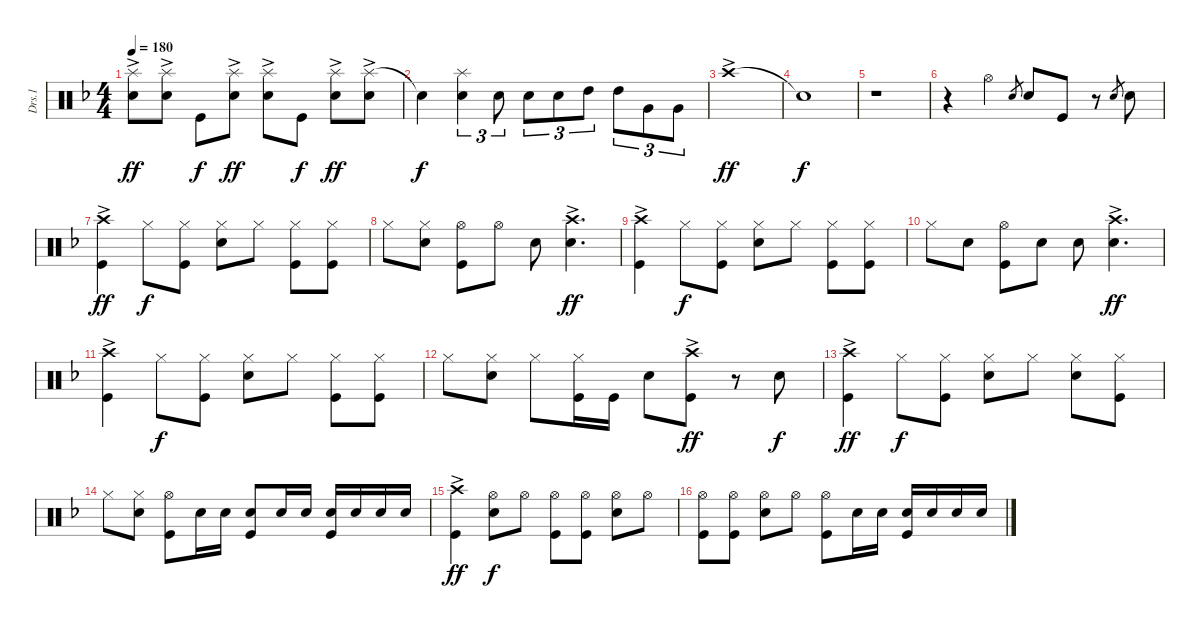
\track ("Drs.1" "Drs.1") {instrument percussion}
\staff {score}
\articulation defaults
\ts (4 4)
\tempo 180
\clef neutral
\ks f
("Splash (hit)"{ac} "Snare (hit) 2").8{dy ff} ("Splash (hit)"{ac} "Snare (hit) 2").8 "Kick (hit)".8{dy f} ("Splash (hit)"{ac} "Snare (hit) 2").8{dy ff} ("Splash (hit)"{ac} "Snare (hit) 2").8 "Kick (hit)".8{dy f} ("Splash (hit)"{ac} "Snare (hit) 2").8{dy ff} ("Splash (hit)"{ac} "Snare (hit) 2").8 |
"Snare (hit)"{t}.4{dy f} ("Splash (hit)" "Snare (hit) 2").4{tu (3 2)} "Snare (hit) 2".8{tu (3 2)} "Snare (hit) 2".8{tu (3 2)} "Snare (hit) 2".8{tu (3 2)} "High Tom (hit)".8{tu (3 2)} "High Tom (hit)".8{tu (3 2)} "Very Low Tom (hit)".8{tu (3 2)} "Very Low Tom (hit)".8{tu (3 2)} |
"Crash high (hit)"{ac}.1{dy ff} |
"Snare (hit)"{t}.1{dy f} |
r.1 |
r.4 "Hi-Hat (open)".4 "Snare (hit) 2".8{gr} "Snare (hit) 2".8 "Kick (hit)".8 r.8 "Snare (hit) 2".8{gr} "Snare (hit) 2".8 |
("Crash high (hit)"{ac} "Kick (hit)").4{dy ff} "Hi-Hat (closed)".8{dy f} ("Hi-Hat (closed)" "Kick (hit)").8 ("Hi-Hat (closed)" "Snare (hit) 2").8 "Hi-Hat (closed)".8 ("Hi-Hat (closed)" "Kick (hit)").8 ("Hi-Hat (closed)" "Kick (hit)").8 |
"Hi-Hat (closed)".8 ("Hi-Hat (closed)" "Snare (hit) 2").8 ("Hi-Hat (open)" "Kick (hit)").8 "Hi-Hat (open)".8 "Snare (hit) 2".8 ("Crash high (hit)"{ac} "Snare (hit) 2").4{d dy ff} |
("Crash high (hit)"{ac} "Kick (hit)").4 "Hi-Hat (closed)".8{dy f} ("Hi-Hat (closed)" "Kick (hit)").8 ("Hi-Hat (closed)" "Snare (hit) 2").8 "Hi-Hat (closed)".8 ("Hi-Hat (closed)" "Kick (hit)").8 ("Hi-Hat (closed)" "Kick (hit)").8 |
"Hi-Hat (closed)".8 "Snare (hit) 2".8 ("Hi-Hat (open)" "Kick (hit)").8 "Snare (hit) 2".8 "Snare (hit) 2".8 ("Crash high (hit)"{ac} "Snare (hit) 2").4{d dy ff} |
("Crash high (hit)"{ac} "Kick (hit)").4 "Hi-Hat (closed)".8{dy f} ("Hi-Hat (closed)" "Kick (hit)").8 ("Hi-Hat (closed)" "Snare (hit) 2").8 "Hi-Hat (closed)".8 ("Hi-Hat (closed)" "Kick (hit)").8 ("Hi-Hat (closed)" "Kick (hit)").8 |
"Hi-Hat (closed)".8 ("Hi-Hat (closed)" "Snare (hit) 2").8 "Hi-Hat (closed)".8 ("Hi-Hat (closed)" "Kick (hit)").16 "Kick (hit)".16 "Snare (hit) 2".8 ("Crash high (hit)"{ac} "Kick (hit)").8{dy ff} r.8 "Snare (hit) 2".8{dy f} |
("Crash high (hit)"{ac} "Kick (hit)").4{dy ff} "Hi-Hat (closed)".8{dy f} ("Hi-Hat (closed)" "Kick (hit)").8 ("Hi-Hat (closed)" "Snare (hit) 2").8 "Hi-Hat (closed)".8 ("Hi-Hat (closed)" "Snare (hit) 2").8 ("Hi-Hat (closed)" "Kick (hit)").8 |
"Hi-Hat (closed)".8 ("Hi-Hat (closed)" "Snare (hit) 2").8 ("Hi-Hat (open)" "Kick (hit)").8 "Snare (hit) 2".16 "Snare (hit) 2".16 ("Snare (hit) 2" "Kick (hit)").8 "Snare (hit) 2".16 "Snare (hit) 2".16 ("Snare (hit) 2" "Kick (hit)").16 "Snare (hit) 2".16 "Snare (hit) 2".16 "Snare (hit) 2".16 |
("Crash high (hit)"{ac} "Kick (hit)").4{dy ff} ("Hi-Hat (open)" "Snare (hit) 2").8{dy f} "Hi-Hat (open)".8 ("Hi-Hat (open)" "Kick (hit)").8 ("Hi-Hat (open)" "Kick (hit)").8 ("Hi-Hat (open)" "Snare (hit) 2").8 "Hi-Hat (open)".8 |
("Hi-Hat (open)" "Kick (hit)").8 ("Hi-Hat (open)" "Kick (hit)").8 ("Hi-Hat (open)" "Snare (hit) 2").8 "Hi-Hat (open)".8 ("Hi-Hat (open)" "Kick (hit)").8 "Snare (hit) 2".16 "Snare (hit) 2".16 ("Snare (hit) 2" "Kick (hit)").16 "Snare (hit) 2".16 "Snare (hit) 2".16 "Snare (hit) 2".16
